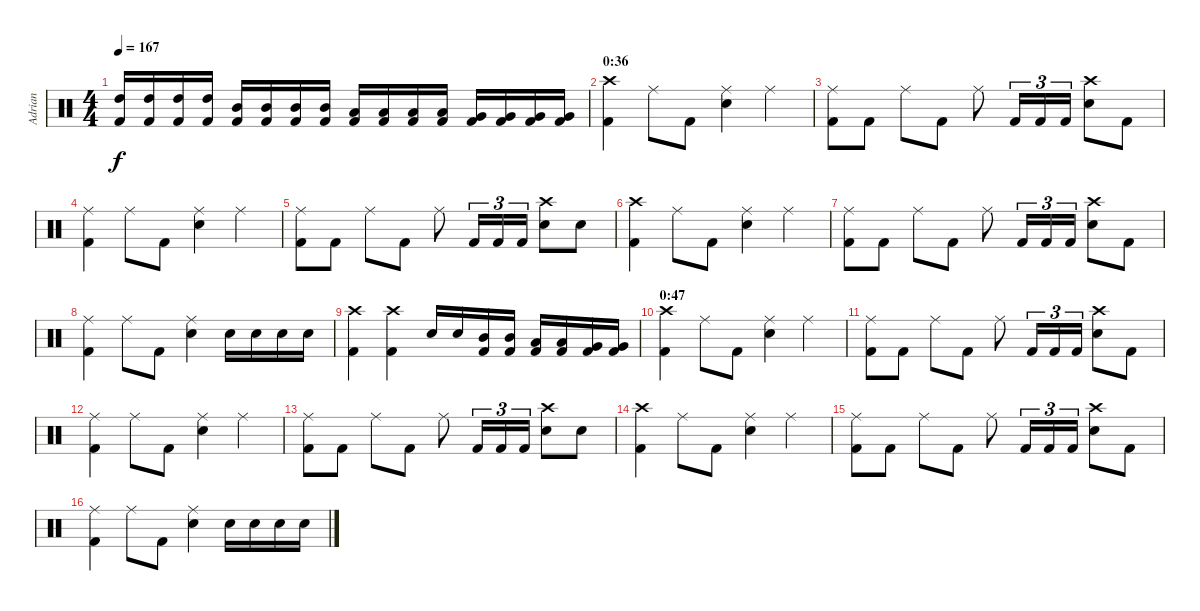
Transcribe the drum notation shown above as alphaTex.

\track ("Adrian" "Adrian") {instrument percussion}
\staff {score}
\articulation defaults
\ts (4 4)
\tempo 167
\clef neutral
\ks c
("Kick (hit) 2" "High Tom (hit)").16{dy f} ("Kick (hit) 2" "High Tom (hit)").16 ("Kick (hit) 2" "High Tom (hit)").16 ("Kick (hit) 2" "High Tom (hit)").16 ("Kick (hit) 2" "Mid Tom (hit)").16 ("Kick (hit) 2" "Mid Tom (hit)").16 ("Kick (hit) 2" "Mid Tom (hit)").16 ("Kick (hit) 2" "Mid Tom (hit)").16 ("Kick (hit) 2" "Low Tom (hit)").16 ("Kick (hit) 2" "Low Tom (hit)").16 ("Kick (hit) 2" "Low Tom (hit)").16 ("Kick (hit) 2" "Low Tom (hit)").16 ("Kick (hit) 2" "Very Low Tom (hit)").16 ("Kick (hit) 2" "Very Low Tom (hit)").16 ("Kick (hit) 2" "Very Low Tom (hit)").16 ("Kick (hit) 2" "Very Low Tom (hit)").16 |
\section ("" "0:36")
("Kick (hit) 2" "Crash high (hit)").4 "Ride (middle)".8 "Kick (hit) 2".8 ("Snare (hit) 2" "Ride (middle)").4 "Ride (middle)".4 |
("Kick (hit) 2" "Ride (middle)").8 "Kick (hit) 2".8 "Ride (middle)".8 "Kick (hit) 2".8 "Ride (middle)".8 "Kick (hit) 2".16{tu (3 2)} "Kick (hit) 2".16{tu (3 2)} "Kick (hit) 2".16{tu (3 2)} ("Snare (hit) 2" "Crash high (hit)").8 "Kick (hit) 2".8 |
("Kick (hit) 2" "Ride (middle)").4 "Ride (middle)".8 "Kick (hit) 2".8 ("Snare (hit) 2" "Ride (middle)").4 "Ride (middle)".4 |
("Kick (hit) 2" "Ride (middle)").8 "Kick (hit) 2".8 "Ride (middle)".8 "Kick (hit) 2".8 "Ride (middle)".8 "Kick (hit) 2".16{tu (3 2)} "Kick (hit) 2".16{tu (3 2)} "Kick (hit) 2".16{tu (3 2)} ("Snare (hit) 2" "Crash high (hit)").8 "Snare (hit) 2".8 |
("Kick (hit) 2" "Crash high (hit)").4 "Ride (middle)".8 "Kick (hit) 2".8 ("Snare (hit) 2" "Ride (middle)").4 "Ride (middle)".4 |
("Kick (hit) 2" "Ride (middle)").8 "Kick (hit) 2".8 "Ride (middle)".8 "Kick (hit) 2".8 "Ride (middle)".8 "Kick (hit) 2".16{tu (3 2)} "Kick (hit) 2".16{tu (3 2)} "Kick (hit) 2".16{tu (3 2)} ("Snare (hit) 2" "Crash high (hit)").8 "Kick (hit) 2".8 |
("Kick (hit) 2" "Ride (middle)").4 "Ride (middle)".8 "Kick (hit) 2".8 ("Snare (hit) 2" "Ride (middle)").4 "Snare (hit) 2".16 "Snare (hit) 2".16 "Snare (hit) 2".16 "Snare (hit) 2".16 |
("Kick (hit) 2" "Crash high (hit)").4 ("Kick (hit) 2" "Crash high (hit)").4 "Snare (hit) 2".16 "Snare (hit) 2".16 ("Kick (hit) 2" "Mid Tom (hit)").16 ("Kick (hit) 2" "Mid Tom (hit)").16 ("Kick (hit) 2" "Low Tom (hit)").16 ("Kick (hit) 2" "Low Tom (hit)").16 ("Kick (hit) 2" "Very Low Tom (hit)").16 ("Kick (hit) 2" "Very Low Tom (hit)").16 |
\section ("" "0:47")
("Kick (hit) 2" "Crash high (hit)").4 "Ride (middle)".8 "Kick (hit) 2".8 ("Snare (hit) 2" "Ride (middle)").4 "Ride (middle)".4 |
("Kick (hit) 2" "Ride (middle)").8 "Kick (hit) 2".8 "Ride (middle)".8 "Kick (hit) 2".8 "Ride (middle)".8 "Kick (hit) 2".16{tu (3 2)} "Kick (hit) 2".16{tu (3 2)} "Kick (hit) 2".16{tu (3 2)} ("Snare (hit) 2" "Crash high (hit)").8 "Kick (hit) 2".8 |
("Kick (hit) 2" "Ride (middle)").4 "Ride (middle)".8 "Kick (hit) 2".8 ("Snare (hit) 2" "Ride (middle)").4 "Ride (middle)".4 |
("Kick (hit) 2" "Ride (middle)").8 "Kick (hit) 2".8 "Ride (middle)".8 "Kick (hit) 2".8 "Ride (middle)".8 "Kick (hit) 2".16{tu (3 2)} "Kick (hit) 2".16{tu (3 2)} "Kick (hit) 2".16{tu (3 2)} ("Snare (hit) 2" "Crash high (hit)").8 "Snare (hit) 2".8 |
("Kick (hit) 2" "Crash high (hit)").4 "Ride (middle)".8 "Kick (hit) 2".8 ("Snare (hit) 2" "Ride (middle)").4 "Ride (middle)".4 |
("Kick (hit) 2" "Ride (middle)").8 "Kick (hit) 2".8 "Ride (middle)".8 "Kick (hit) 2".8 "Ride (middle)".8 "Kick (hit) 2".16{tu (3 2)} "Kick (hit) 2".16{tu (3 2)} "Kick (hit) 2".16{tu (3 2)} ("Snare (hit) 2" "Crash high (hit)").8 "Kick (hit) 2".8 |
("Kick (hit) 2" "Ride (middle)").4 "Ride (middle)".8 "Kick (hit) 2".8 ("Snare (hit) 2" "Ride (middle)").4 "Snare (hit) 2".16 "Snare (hit) 2".16 "Snare (hit) 2".16 "Snare (hit) 2".16
